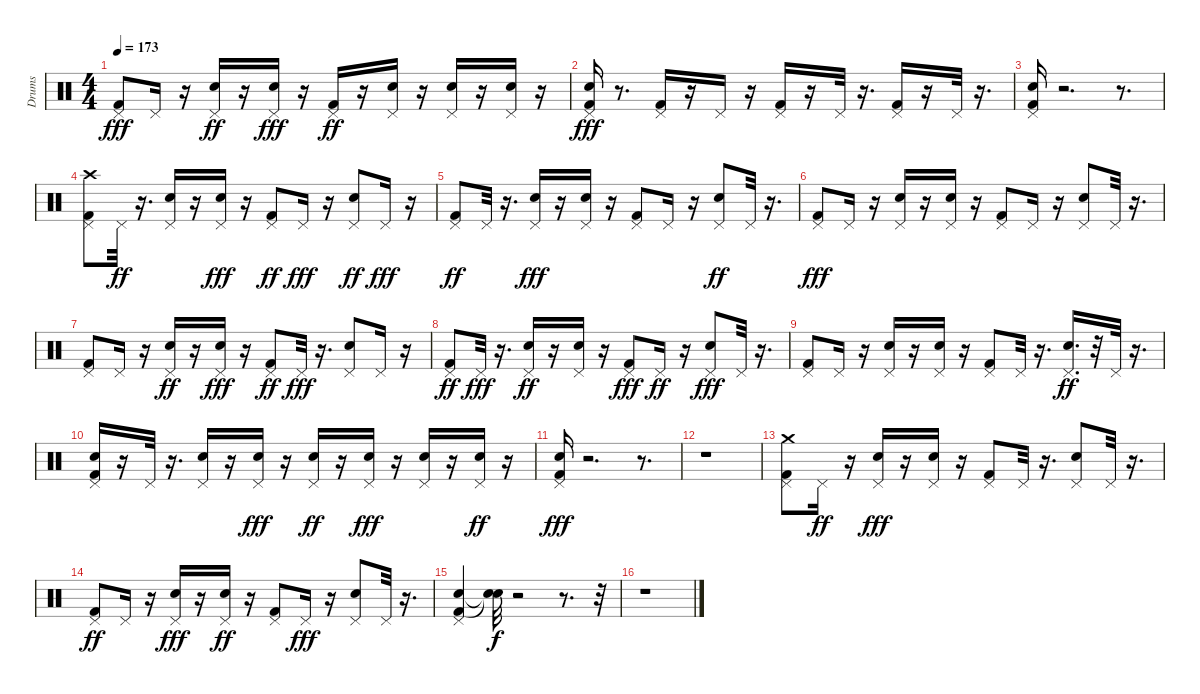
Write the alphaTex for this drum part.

\track ("Drums" "Drums") {instrument percussion}
\staff {score}
\articulation defaults
\ts (4 4)
\tempo 173
\clef neutral
\ks c
("Kick (hit) 2" "Pedal Hi-Hat (hit)").8{dy fff} "Pedal Hi-Hat (hit)".16 r.16 ("Snare (hit) 2" "Pedal Hi-Hat (hit)").16{dy ff} r.16 ("Snare (hit) 2" "Pedal Hi-Hat (hit)").16{dy fff} r.16 ("Kick (hit) 2" "Pedal Hi-Hat (hit)").16{dy ff} r.16 ("Snare (hit) 2" "Pedal Hi-Hat (hit)").16 r.16 ("Snare (hit) 2" "Pedal Hi-Hat (hit)").16 r.16 ("Snare (hit) 2" "Pedal Hi-Hat (hit)").16 r.16 |
("Snare (hit) 2" "Kick (hit) 2" "Pedal Hi-Hat (hit)").16{dy fff} r.8{d} ("Kick (hit) 2" "Pedal Hi-Hat (hit)").16 r.16 "Pedal Hi-Hat (hit)".16 r.16 ("Kick (hit) 2" "Pedal Hi-Hat (hit)").16 r.16 "Pedal Hi-Hat (hit)".32 r.16{d} ("Kick (hit) 2" "Pedal Hi-Hat (hit)").16 r.16 "Pedal Hi-Hat (hit)".32 r.16{d} |
("Kick (hit) 2" "Snare (hit) 2" "Pedal Hi-Hat (hit)").16 r.2{d} r.8{d} |
("Kick (hit) 2" "Pedal Hi-Hat (hit)" "Crash high (hit)").8 "Pedal Hi-Hat (hit)".32{dy ff} r.16{d} ("Snare (hit) 2" "Pedal Hi-Hat (hit)").16 r.16 ("Snare (hit) 2" "Pedal Hi-Hat (hit)").16{dy fff} r.16 ("Kick (hit) 2" "Pedal Hi-Hat (hit)").8{dy ff} "Pedal Hi-Hat (hit)".16{dy fff} r.16 ("Snare (hit) 2" "Pedal Hi-Hat (hit)").8{dy ff} "Pedal Hi-Hat (hit)".16{dy fff} r.16 |
("Kick (hit) 2" "Pedal Hi-Hat (hit)").8{dy ff} "Pedal Hi-Hat (hit)".32 r.16{d} ("Snare (hit) 2" "Pedal Hi-Hat (hit)").16{dy fff} r.16 ("Snare (hit) 2" "Pedal Hi-Hat (hit)").16 r.16 ("Kick (hit) 2" "Pedal Hi-Hat (hit)").8 "Pedal Hi-Hat (hit)".16 r.16 ("Snare (hit) 2" "Pedal Hi-Hat (hit)").8{dy ff} "Pedal Hi-Hat (hit)".32 r.16{d} |
("Kick (hit) 2" "Pedal Hi-Hat (hit)").8{dy fff} "Pedal Hi-Hat (hit)".16 r.16 ("Snare (hit) 2" "Pedal Hi-Hat (hit)").16 r.16 ("Snare (hit) 2" "Pedal Hi-Hat (hit)").16 r.16 ("Kick (hit) 2" "Pedal Hi-Hat (hit)").8 "Pedal Hi-Hat (hit)".16 r.16 ("Snare (hit) 2" "Pedal Hi-Hat (hit)").8 "Pedal Hi-Hat (hit)".32 r.16{d} |
("Kick (hit) 2" "Pedal Hi-Hat (hit)").8 "Pedal Hi-Hat (hit)".16 r.16 ("Snare (hit) 2" "Pedal Hi-Hat (hit)").16{dy ff} r.16 ("Snare (hit) 2" "Pedal Hi-Hat (hit)").16{dy fff} r.16 ("Kick (hit) 2" "Pedal Hi-Hat (hit)").8{dy ff} "Pedal Hi-Hat (hit)".32{dy fff} r.16{d} ("Snare (hit) 2" "Pedal Hi-Hat (hit)").8 "Pedal Hi-Hat (hit)".16 r.16 |
("Kick (hit) 2" "Pedal Hi-Hat (hit)").8{dy ff} "Pedal Hi-Hat (hit)".32{dy fff} r.16{d} ("Snare (hit) 2" "Pedal Hi-Hat (hit)").16{dy ff} r.16 ("Snare (hit) 2" "Pedal Hi-Hat (hit)").16 r.16 ("Kick (hit) 2" "Pedal Hi-Hat (hit)").8{dy fff} "Pedal Hi-Hat (hit)".16{dy ff} r.16 ("Snare (hit) 2" "Pedal Hi-Hat (hit)").8{dy fff} "Pedal Hi-Hat (hit)".32 r.16{d} |
("Kick (hit) 2" "Pedal Hi-Hat (hit)").8 "Pedal Hi-Hat (hit)".16 r.16 ("Snare (hit) 2" "Pedal Hi-Hat (hit)").16 r.16 ("Snare (hit) 2" "Pedal Hi-Hat (hit)").16 r.16 ("Kick (hit) 2" "Pedal Hi-Hat (hit)").8 "Pedal Hi-Hat (hit)".32 r.16{d} ("Snare (hit) 2" "Pedal Hi-Hat (hit)").16{d dy ff} r.32 "Pedal Hi-Hat (hit)".32 r.16{d} |
("Snare (hit) 2" "Kick (hit) 2" "Pedal Hi-Hat (hit)").16 r.16 "Pedal Hi-Hat (hit)".32 r.16{d} ("Snare (hit) 2" "Pedal Hi-Hat (hit)").16 r.16 ("Snare (hit) 2" "Pedal Hi-Hat (hit)").16{dy fff} r.16 ("Snare (hit) 2" "Pedal Hi-Hat (hit)").16{dy ff} r.16 ("Snare (hit) 2" "Pedal Hi-Hat (hit)").16{dy fff} r.16 ("Snare (hit) 2" "Pedal Hi-Hat (hit)").16 r.16 ("Snare (hit) 2" "Pedal Hi-Hat (hit)").16{dy ff} r.16 |
("Snare (hit) 2" "Kick (hit) 2" "Pedal Hi-Hat (hit)").16{dy fff} r.2{d} r.8{d} |
r.1 |
("Kick (hit) 2" "Pedal Hi-Hat (hit)" "Crash medium (hit)").8 "Pedal Hi-Hat (hit)".16{dy ff} r.16 ("Snare (hit) 2" "Pedal Hi-Hat (hit)").16{dy fff} r.16 ("Snare (hit) 2" "Pedal Hi-Hat (hit)").16 r.16 ("Kick (hit) 2" "Pedal Hi-Hat (hit)").8 "Pedal Hi-Hat (hit)".32 r.16{d} ("Snare (hit) 2" "Pedal Hi-Hat (hit)").8 "Pedal Hi-Hat (hit)".32 r.16{d} |
("Kick (hit) 2" "Pedal Hi-Hat (hit)").8{dy ff} "Pedal Hi-Hat (hit)".16 r.16 ("Snare (hit) 2" "Pedal Hi-Hat (hit)").16{dy fff} r.16 ("Snare (hit) 2" "Pedal Hi-Hat (hit)").16{dy ff} r.16 ("Kick (hit) 2" "Pedal Hi-Hat (hit)").8 "Pedal Hi-Hat (hit)".16{dy fff} r.16 ("Snare (hit) 2" "Pedal Hi-Hat (hit)").8 "Pedal Hi-Hat (hit)".32 r.16{d} |
("Snare (hit) 2" "Kick (hit) 2" "Pedal Hi-Hat (hit)").4 ("Snare (hit)"{t} "Snare (hit)"{t}).32{dy f} r.2 r.8{d} r.32 |
r.1
